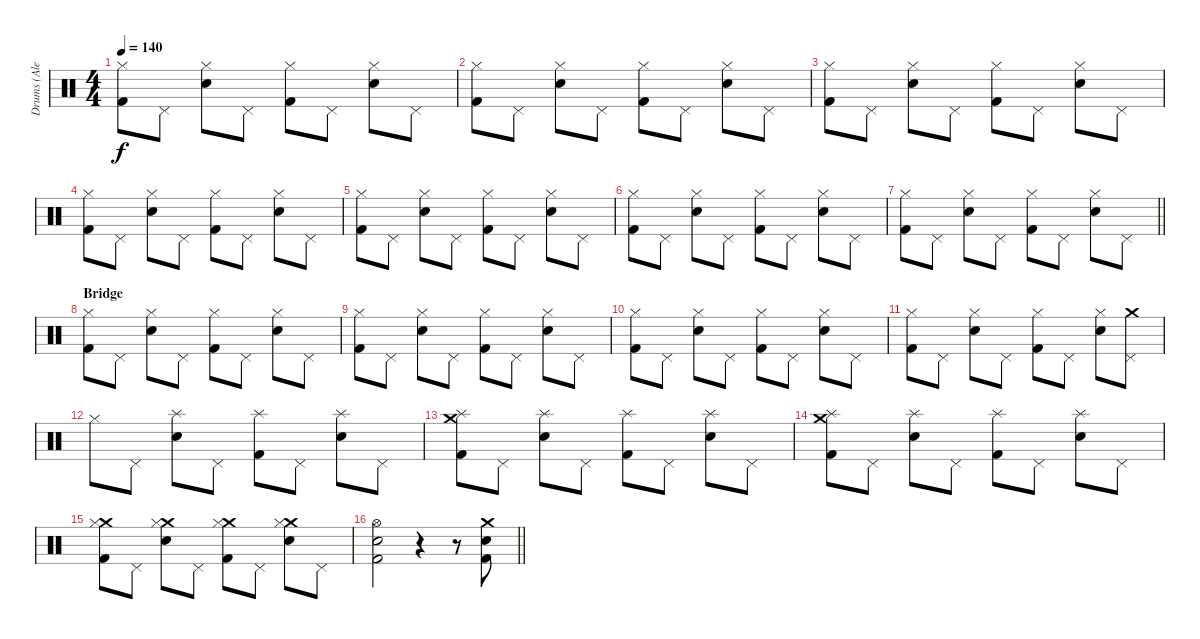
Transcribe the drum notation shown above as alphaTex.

\track ("Drums (Alex Van Halen)" "Drums (Ale") {instrument percussion}
\staff {score}
\articulation defaults
\ts (4 4)
\tempo 140
\clef neutral
\ks c
("Kick (hit) 2" "Hi-Hat (closed)").8{dy f} "Pedal Hi-Hat (hit)".8 ("Snare (hit) 2" "Hi-Hat (closed)").8 "Pedal Hi-Hat (hit)".8 ("Kick (hit) 2" "Hi-Hat (closed)").8 "Pedal Hi-Hat (hit)".8 ("Snare (hit) 2" "Hi-Hat (closed)").8 "Pedal Hi-Hat (hit)".8 |
("Kick (hit) 2" "Hi-Hat (closed)").8 "Pedal Hi-Hat (hit)".8 ("Snare (hit) 2" "Hi-Hat (closed)").8 "Pedal Hi-Hat (hit)".8 ("Kick (hit) 2" "Hi-Hat (closed)").8 "Pedal Hi-Hat (hit)".8 ("Snare (hit) 2" "Hi-Hat (closed)").8 "Pedal Hi-Hat (hit)".8 |
("Kick (hit) 2" "Hi-Hat (closed)").8 "Pedal Hi-Hat (hit)".8 ("Snare (hit) 2" "Hi-Hat (closed)").8 "Pedal Hi-Hat (hit)".8 ("Kick (hit) 2" "Hi-Hat (closed)").8 "Pedal Hi-Hat (hit)".8 ("Snare (hit) 2" "Hi-Hat (closed)").8 "Pedal Hi-Hat (hit)".8 |
("Kick (hit) 2" "Hi-Hat (closed)").8 "Pedal Hi-Hat (hit)".8 ("Snare (hit) 2" "Hi-Hat (closed)").8 "Pedal Hi-Hat (hit)".8 ("Kick (hit) 2" "Hi-Hat (closed)").8 "Pedal Hi-Hat (hit)".8 ("Snare (hit) 2" "Hi-Hat (closed)").8 "Pedal Hi-Hat (hit)".8 |
("Kick (hit) 2" "Hi-Hat (closed)").8 "Pedal Hi-Hat (hit)".8 ("Snare (hit) 2" "Hi-Hat (closed)").8 "Pedal Hi-Hat (hit)".8 ("Kick (hit) 2" "Hi-Hat (closed)").8 "Pedal Hi-Hat (hit)".8 ("Snare (hit) 2" "Hi-Hat (closed)").8 "Pedal Hi-Hat (hit)".8 |
("Kick (hit) 2" "Hi-Hat (closed)").8 "Pedal Hi-Hat (hit)".8 ("Snare (hit) 2" "Hi-Hat (closed)").8 "Pedal Hi-Hat (hit)".8 ("Kick (hit) 2" "Hi-Hat (closed)").8 "Pedal Hi-Hat (hit)".8 ("Snare (hit) 2" "Hi-Hat (closed)").8 "Pedal Hi-Hat (hit)".8 |
\barLineRight lightlight
("Kick (hit) 2" "Hi-Hat (closed)").8 "Pedal Hi-Hat (hit)".8 ("Snare (hit) 2" "Hi-Hat (closed)").8 "Pedal Hi-Hat (hit)".8 ("Kick (hit) 2" "Hi-Hat (closed)").8 "Pedal Hi-Hat (hit)".8 ("Snare (hit) 2" "Hi-Hat (closed)").8 "Pedal Hi-Hat (hit)".8 |
\section ("" "Bridge")
("Kick (hit) 2" "Hi-Hat (closed)").8 "Pedal Hi-Hat (hit)".8 ("Snare (hit) 2" "Hi-Hat (closed)").8 "Pedal Hi-Hat (hit)".8 ("Kick (hit) 2" "Hi-Hat (closed)").8 "Pedal Hi-Hat (hit)".8 ("Snare (hit) 2" "Hi-Hat (closed)").8 "Pedal Hi-Hat (hit)".8 |
("Kick (hit) 2" "Hi-Hat (closed)").8 "Pedal Hi-Hat (hit)".8 ("Snare (hit) 2" "Hi-Hat (closed)").8 "Pedal Hi-Hat (hit)".8 ("Kick (hit) 2" "Hi-Hat (closed)").8 "Pedal Hi-Hat (hit)".8 ("Snare (hit) 2" "Hi-Hat (closed)").8 "Pedal Hi-Hat (hit)".8 |
("Kick (hit) 2" "Hi-Hat (closed)").8 "Pedal Hi-Hat (hit)".8 ("Snare (hit) 2" "Hi-Hat (closed)").8 "Pedal Hi-Hat (hit)".8 ("Kick (hit) 2" "Hi-Hat (closed)").8 "Pedal Hi-Hat (hit)".8 ("Snare (hit) 2" "Hi-Hat (closed)").8 "Pedal Hi-Hat (hit)".8 |
("Kick (hit) 2" "Hi-Hat (closed)").8 "Pedal Hi-Hat (hit)".8 ("Snare (hit) 2" "Hi-Hat (closed)").8 "Pedal Hi-Hat (hit)".8 ("Kick (hit) 2" "Hi-Hat (closed)").8 "Pedal Hi-Hat (hit)".8 ("Snare (hit) 2" "Hi-Hat (closed)").8 ("Crash medium (hit)" "Pedal Hi-Hat (hit)").8 |
"Hi-Hat (closed)".8 "Pedal Hi-Hat (hit)".8 ("Snare (hit) 2" "Splash (hit)").8 "Pedal Hi-Hat (hit)".8 ("Kick (hit) 2" "Splash (hit)").8 "Pedal Hi-Hat (hit)".8 ("Snare (hit) 2" "Splash (hit)").8 "Pedal Hi-Hat (hit)".8 |
("Crash medium (hit)" "Kick (hit) 2" "Splash (hit)").8 "Pedal Hi-Hat (hit)".8 ("Snare (hit) 2" "Splash (hit)").8 "Pedal Hi-Hat (hit)".8 ("Kick (hit) 2" "Splash (hit)").8 "Pedal Hi-Hat (hit)".8 ("Snare (hit) 2" "Splash (hit)").8 "Pedal Hi-Hat (hit)".8 |
("Crash medium (hit)" "Kick (hit) 2" "Splash (hit)").8 "Pedal Hi-Hat (hit)".8 ("Snare (hit) 2" "Splash (hit)").8 "Pedal Hi-Hat (hit)".8 ("Kick (hit) 2" "Splash (hit)").8 "Pedal Hi-Hat (hit)".8 ("Snare (hit) 2" "Splash (hit)").8 "Pedal Hi-Hat (hit)".8 |
("Crash medium (hit)" "Kick (hit) 2" "Hi-Hat (closed)").8 "Pedal Hi-Hat (hit)".8 ("Crash medium (hit)" "Snare (hit) 2" "Hi-Hat (closed)").8 "Pedal Hi-Hat (hit)".8 ("Crash medium (hit)" "Kick (hit) 2" "Hi-Hat (closed)").8 "Pedal Hi-Hat (hit)".8 ("Crash medium (hit)" "Snare (hit) 2" "Hi-Hat (closed)").8 "Pedal Hi-Hat (hit)".8 |
\barLineRight lightlight
("Hi-Hat (open)" "Snare (hit) 2" "Kick (hit) 2").2 r.4 r.8 ("Crash medium (hit)" "Snare (hit) 2" "Kick (hit) 2").8
